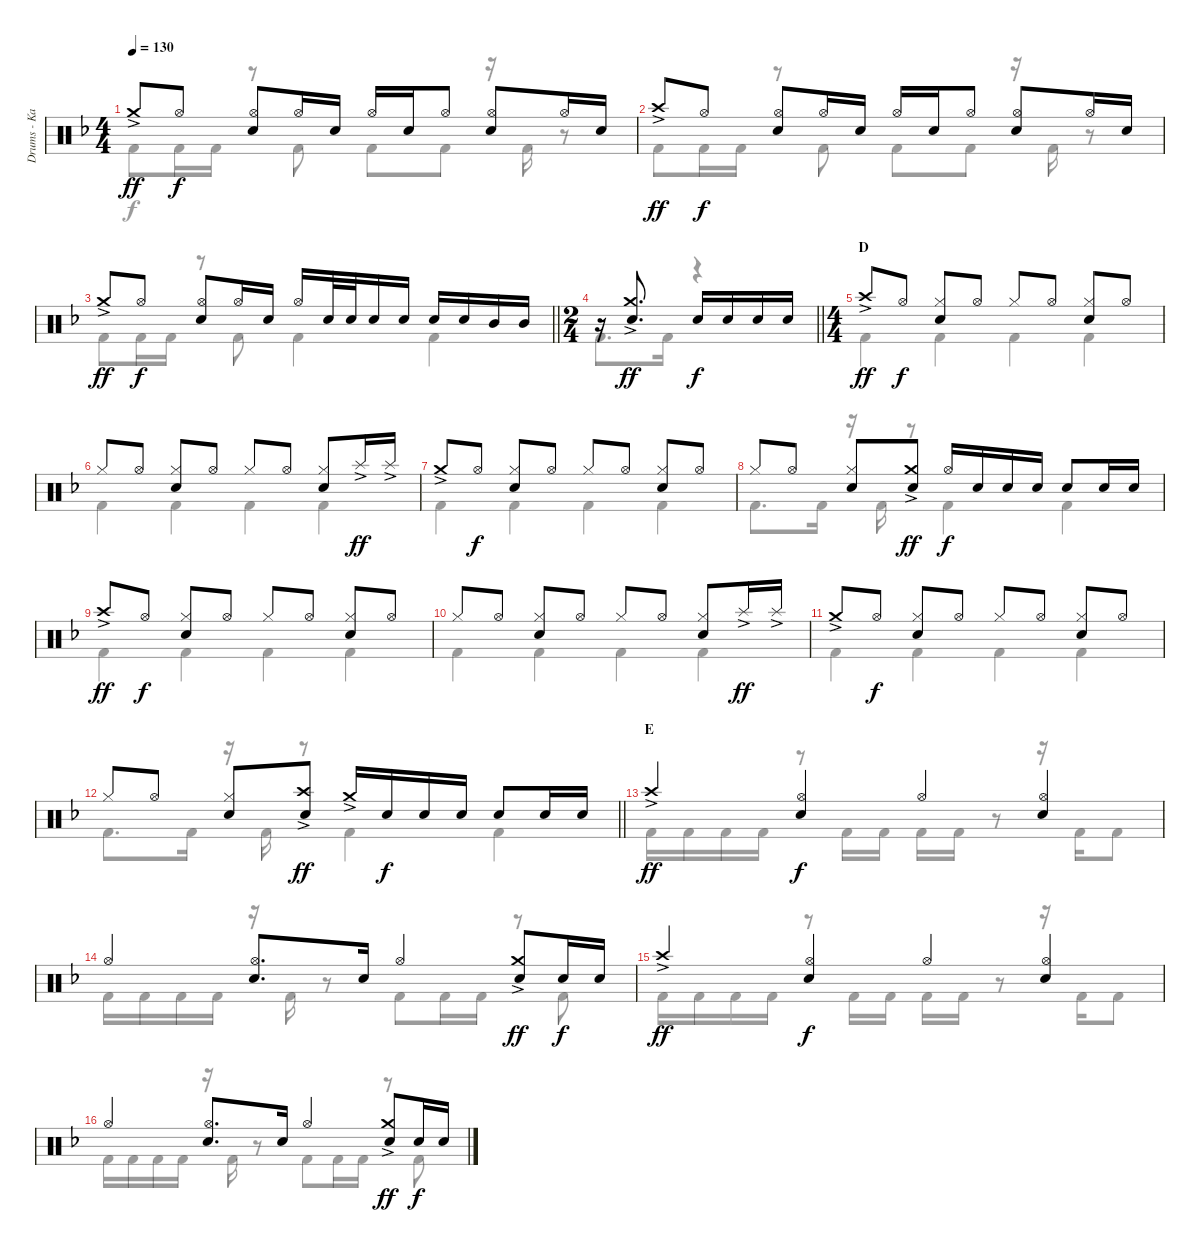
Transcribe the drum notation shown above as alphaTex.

\track ("Drums - Kai" "Drums - Ka") {instrument percussion}
\staff {score}
\articulation defaults
\voice
\ts (4 4)
\tempo 130
\clef neutral
\ks f "Crash medium (hit)"{ac}.8{dy ff} "Hi-Hat (open)".8{dy f}
("Hi-Hat (open)" "Snare (hit) 2").8 "Hi-Hat (open)".16 "Snare (hit) 2".16 "Hi-Hat (open)".16 "Snare (hit) 2".16 "Hi-Hat (open)".8 ("Hi-Hat (open)" "Snare (hit) 2").8 "Hi-Hat (open)".16 "Snare (hit) 2".16 |
"Crash high (hit)"{ac}.8{dy ff} "Hi-Hat (open)".8{dy f} ("Hi-Hat (open)" "Snare (hit) 2").8 "Hi-Hat (open)".16 "Snare (hit) 2".16 "Hi-Hat (open)".16 "Snare (hit) 2".16 "Hi-Hat (open)".8 ("Hi-Hat (open)" "Snare (hit) 2").8 "Hi-Hat (open)".16 "Snare (hit) 2".16 |
\barLineRight lightlight "Crash medium (hit)"{ac}.8{dy ff} "Hi-Hat (open)".8{dy f}
("Hi-Hat (open)" "Snare (hit) 2").8 "Hi-Hat (open)".16 "Snare (hit) 2".16 "Hi-Hat (open)".16 "Snare (hit) 2".32 "Snare (hit) 2".32 "Snare (hit) 2".16 "Snare (hit) 2".16 "Snare (hit) 2".16 "Snare (hit) 2".16 "Mid Tom (hit)".16 "Mid Tom (hit)".16 |
\ts (2 4)
\barLineRight lightlight
r.16 ("Crash medium (hit)"{ac} "Snare (hit) 2").8{d dy ff} "Snare (hit) 2".16{dy f} "Snare (hit) 2".16 "Snare (hit) 2".16 "Snare (hit) 2".16 |
\ts (4 4)
\section ("" "D")
"Crash high (hit)"{ac}.8{dy ff} "Hi-Hat (open)".8{dy f} ("Hi-Hat (closed)" "Snare (hit) 2").8 "Hi-Hat (open)".8 "Hi-Hat (closed)".8 "Hi-Hat (open)".8 ("Hi-Hat (closed)" "Snare (hit) 2").8 "Hi-Hat (open)".8 |
"Hi-Hat (closed)".8 "Hi-Hat (open)".8 ("Hi-Hat (closed)" "Snare (hit) 2").8 "Hi-Hat (open)".8 "Hi-Hat (closed)".8 "Hi-Hat (open)".8 ("Hi-Hat (closed)" "Snare (hit) 2").8 "Splash (hit)"{ac}.16{dy ff} "Splash (hit)"{ac}.16 |
"Crash medium (hit)"{ac}.8 "Hi-Hat (open)".8{dy f} ("Hi-Hat (closed)" "Snare (hit) 2").8 "Hi-Hat (open)".8 "Hi-Hat (closed)".8 "Hi-Hat (open)".8 ("Hi-Hat (closed)" "Snare (hit) 2").8 "Hi-Hat (open)".8 |
"Hi-Hat (closed)".8 "Hi-Hat (open)".8 ("Hi-Hat (closed)" "Snare (hit) 2").8 ("Crash medium (hit)"{ac} "Snare (hit) 2").8{dy ff} "Hi-Hat (open)".16{dy f} "Snare (hit) 2".16 "Snare (hit) 2".16 "Snare (hit) 2".16 "Snare (hit) 2".8 "Snare (hit) 2".16 "Snare (hit) 2".16 |
"Crash high (hit)"{ac}.8{dy ff} "Hi-Hat (open)".8{dy f} ("Hi-Hat (closed)" "Snare (hit) 2").8 "Hi-Hat (open)".8 "Hi-Hat (closed)".8 "Hi-Hat (open)".8 ("Hi-Hat (closed)" "Snare (hit) 2").8 "Hi-Hat (open)".8 |
"Hi-Hat (closed)".8 "Hi-Hat (open)".8 ("Hi-Hat (closed)" "Snare (hit) 2").8 "Hi-Hat (open)".8 "Hi-Hat (closed)".8 "Hi-Hat (open)".8 ("Hi-Hat (closed)" "Snare (hit) 2").8 "Splash (hit)"{ac}.16{dy ff} "Splash (hit)"{ac}.16 |
"Crash medium (hit)"{ac}.8 "Hi-Hat (open)".8{dy f} ("Hi-Hat (closed)" "Snare (hit) 2").8 "Hi-Hat (open)".8 "Hi-Hat (closed)".8 "Hi-Hat (open)".8 ("Hi-Hat (closed)" "Snare (hit) 2").8 "Hi-Hat (open)".8 |
\barLineRight lightlight "Hi-Hat (closed)".8 "Hi-Hat (open)".8
("Hi-Hat (closed)" "Snare (hit) 2").8 ("Crash high (hit)"{ac} "Snare (hit) 2").8{dy ff} "Crash medium (hit)"{ac}.16 "Snare (hit) 2".16{dy f} "Snare (hit) 2".16 "Snare (hit) 2".16 "Snare (hit) 2".8 "Snare (hit) 2".16 "Snare (hit) 2".16 |
\section ("" "E")
"Crash high (hit)"{ac}.4{dy ff} ("Hi-Hat (open)" "Snare (hit) 2").4{dy f} "Hi-Hat (open)".4 ("Hi-Hat (open)" "Snare (hit) 2").4 |
"Hi-Hat (open)".4 ("Hi-Hat (open)" "Snare (hit) 2").8{d} "Snare (hit) 2".16 "Hi-Hat (open)".4 ("Crash medium (hit)"{ac} "Snare (hit) 2").8{dy ff} "Snare (hit) 2".16{dy f} "Snare (hit) 2".16 |
"Crash high (hit)"{ac}.4{dy ff} ("Hi-Hat (open)" "Snare (hit) 2").4{dy f} "Hi-Hat (open)".4 ("Hi-Hat (open)" "Snare (hit) 2").4 |
"Hi-Hat (open)".4 ("Hi-Hat (open)" "Snare (hit) 2").8{d} "Snare (hit) 2".16 "Hi-Hat (open)".4 ("Crash medium (hit)"{ac} "Snare (hit) 2").8{dy ff} "Snare (hit) 2".16{dy f} "Snare (hit) 2".16
\voice
\clef neutral
\ottava regular
\simile none
\ks f "Kick (hit) 2".8{dy f} "Kick (hit) 2".16 "Kick (hit) 2".16
r.8 "Kick (hit) 2".8 "Kick (hit) 2".8 "Kick (hit) 2".8 r.16 "Kick (hit) 2".16 r.8 |
"Kick (hit) 2".8 "Kick (hit) 2".16 "Kick (hit) 2".16 r.8 "Kick (hit) 2".8 "Kick (hit) 2".8 "Kick (hit) 2".8 r.16 "Kick (hit) 2".16 r.8 |
\barLineRight lightlight "Kick (hit) 2".8 "Kick (hit) 2".16 "Kick (hit) 2".16
r.8 "Kick (hit) 2".8 "Kick (hit) 2".4 "Kick (hit) 2".4 |
\barLineRight lightlight "Kick (hit) 2".8{d} "Kick (hit) 2".16
r.4 |
"Kick (hit) 2".4 "Kick (hit) 2".4 "Kick (hit) 2".4 "Kick (hit) 2".4 |
"Kick (hit) 2".4 "Kick (hit) 2".4 "Kick (hit) 2".4 "Kick (hit) 2".4 |
"Kick (hit) 2".4 "Kick (hit) 2".4 "Kick (hit) 2".4 "Kick (hit) 2".4 |
"Kick (hit) 2".8{d} "Kick (hit) 2".16 r.16 "Kick (hit) 2".16 r.8 "Kick (hit) 2".4 "Kick (hit) 2".4 |
"Kick (hit) 2".4 "Kick (hit) 2".4 "Kick (hit) 2".4 "Kick (hit) 2".4 |
"Kick (hit) 2".4 "Kick (hit) 2".4 "Kick (hit) 2".4 "Kick (hit) 2".4 |
"Kick (hit) 2".4 "Kick (hit) 2".4 "Kick (hit) 2".4 "Kick (hit) 2".4 |
\barLineRight lightlight "Kick (hit) 2".8{d} "Kick (hit) 2".16
r.16 "Kick (hit) 2".16 r.8 "Kick (hit) 2".4 "Kick (hit) 2".4 |
"Kick (hit) 2".16 "Kick (hit) 2".16 "Kick (hit) 2".16 "Kick (hit) 2".16 r.8 "Kick (hit) 2".16 "Kick (hit) 2".16 "Kick (hit) 2".16 "Kick (hit) 2".16 r.8 r.16 "Kick (hit) 2".16 "Kick (hit) 2".8 |
"Kick (hit) 2".16 "Kick (hit) 2".16 "Kick (hit) 2".16 "Kick (hit) 2".16 r.16 "Kick (hit) 2".16 r.8 "Kick (hit) 2".8 "Kick (hit) 2".16 "Kick (hit) 2".16 r.8 "Kick (hit) 2".8 |
"Kick (hit) 2".16 "Kick (hit) 2".16 "Kick (hit) 2".16 "Kick (hit) 2".16 r.8 "Kick (hit) 2".16 "Kick (hit) 2".16 "Kick (hit) 2".16 "Kick (hit) 2".16 r.8 r.16 "Kick (hit) 2".16 "Kick (hit) 2".8 |
"Kick (hit) 2".16 "Kick (hit) 2".16 "Kick (hit) 2".16 "Kick (hit) 2".16 r.16 "Kick (hit) 2".16 r.8 "Kick (hit) 2".8 "Kick (hit) 2".16 "Kick (hit) 2".16 r.8 "Kick (hit) 2".8
